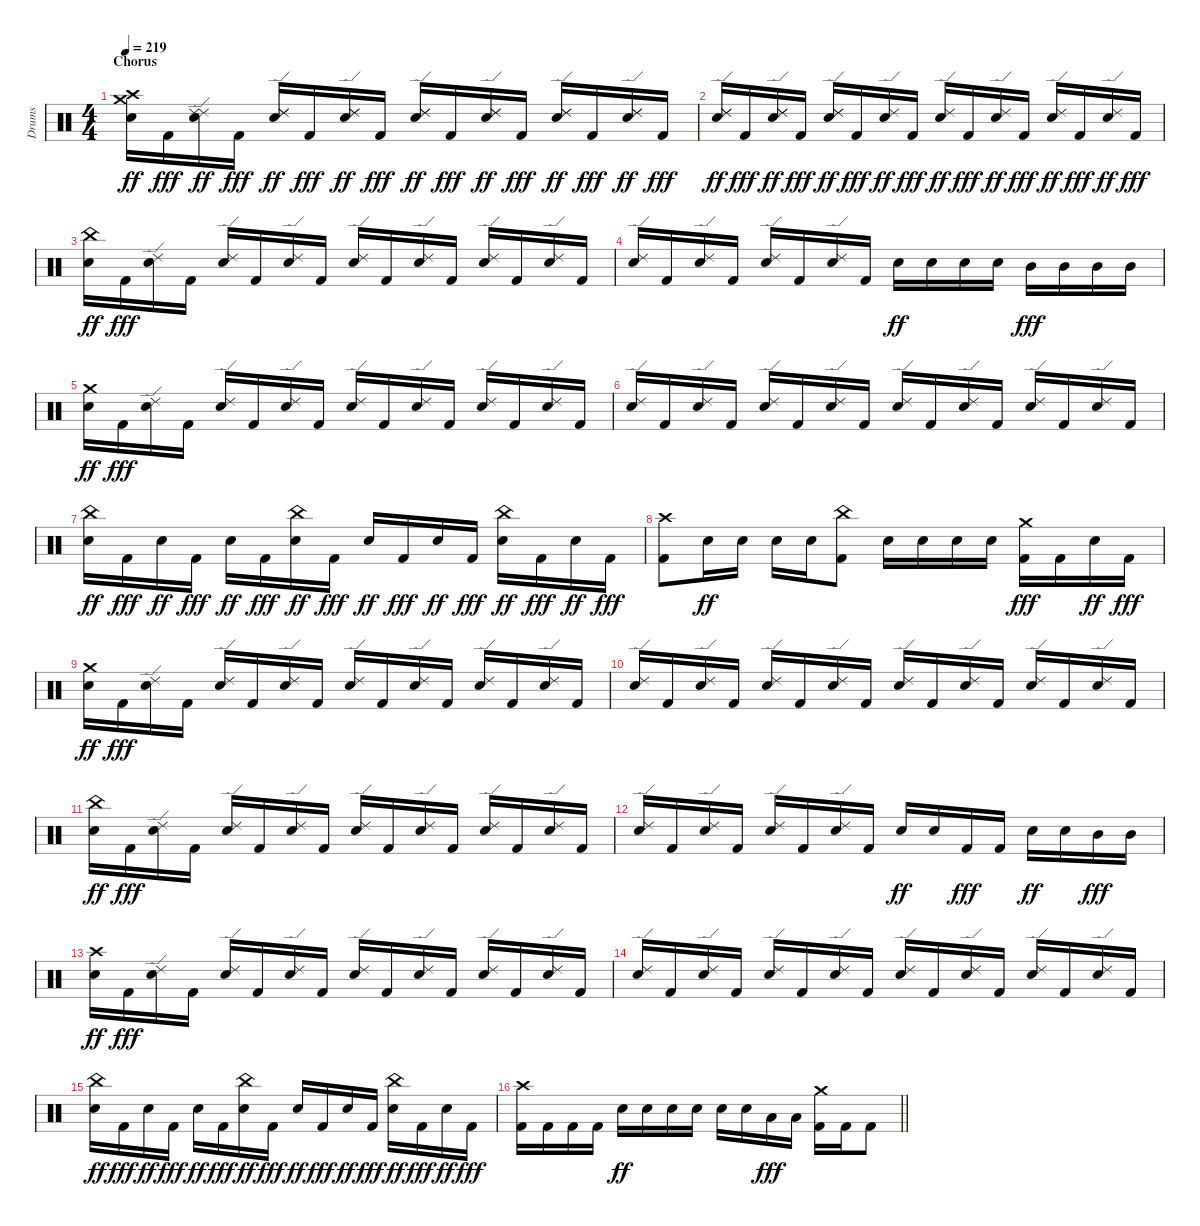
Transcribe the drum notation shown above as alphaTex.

\track ("Drums" "Drums") {instrument percussion}
\staff {score}
\articulation defaults
\ts (4 4)
\section ("" "Chorus")
\tempo 219
\clef neutral
\ks c
("Snare (hit) 2" "Crash medium (hit)" "Crash high (hit)").16{dy ff} "Kick (hit) 2".16{dy fff} ("Snare (hit) 2" "Ride (edge) 2" "Ride (edge) 2").16{dy ff} "Kick (hit) 2".16{dy fff} ("Snare (hit) 2" "Ride (edge) 2" "Ride (edge) 2").16{dy ff} "Kick (hit) 2".16{dy fff} ("Snare (hit) 2" "Ride (edge) 2" "Ride (edge) 2").16{dy ff} "Kick (hit) 2".16{dy fff} ("Snare (hit) 2" "Ride (edge) 2" "Ride (edge) 2").16{dy ff} "Kick (hit) 2".16{dy fff} ("Snare (hit) 2" "Ride (edge) 2" "Ride (edge) 2").16{dy ff} "Kick (hit) 2".16{dy fff} ("Snare (hit) 2" "Ride (edge) 2" "Ride (edge) 2").16{dy ff} "Kick (hit) 2".16{dy fff} ("Snare (hit) 2" "Ride (edge) 2" "Ride (edge) 2").16{dy ff} "Kick (hit) 2".16{dy fff} |
("Snare (hit) 2" "Ride (edge) 2" "Ride (edge) 2").16{dy ff} "Kick (hit) 2".16{dy fff} ("Snare (hit) 2" "Ride (edge) 2" "Ride (edge) 2").16{dy ff} "Kick (hit) 2".16{dy fff} ("Snare (hit) 2" "Ride (edge) 2" "Ride (edge) 2").16{dy ff} "Kick (hit) 2".16{dy fff} ("Snare (hit) 2" "Ride (edge) 2").16{dy ff} "Kick (hit) 2".16{dy fff} ("Snare (hit) 2" "Ride (edge) 2").16{dy ff} "Kick (hit) 2".16{dy fff} ("Snare (hit) 2" "Ride (edge) 2").16{dy ff} "Kick (hit) 2".16{dy fff} ("Snare (hit) 2" "Ride (edge) 2").16{dy ff} "Kick (hit) 2".16{dy fff} ("Snare (hit) 2" "Ride (edge) 2").16{dy ff} "Kick (hit) 2".16{dy fff} |
("Snare (hit) 2" "China (hit)").16{dy ff} "Kick (hit) 2".16{dy fff} ("Snare (hit) 2" "Ride (edge) 2").16 "Kick (hit) 2".16 ("Snare (hit) 2" "Ride (edge) 2").16 "Kick (hit) 2".16 ("Snare (hit) 2" "Ride (edge) 2").16 "Kick (hit) 2".16 ("Snare (hit) 2" "Ride (edge) 2").16 "Kick (hit) 2".16 ("Snare (hit) 2" "Ride (edge) 2").16 "Kick (hit) 2".16 ("Snare (hit) 2" "Ride (edge) 2").16 "Kick (hit) 2".16 ("Snare (hit) 2" "Ride (edge) 2").16 "Kick (hit) 2".16 |
("Snare (hit) 2" "Ride (edge) 2").16 "Kick (hit) 2".16 ("Snare (hit) 2" "Ride (edge) 2").16 "Kick (hit) 2".16 ("Snare (hit) 2" "Ride (edge) 2").16 "Kick (hit) 2".16 ("Snare (hit) 2" "Ride (edge) 2").16 "Kick (hit) 2".16 "Snare (hit) 2".16{dy ff} "Snare (hit) 2".16 "Snare (hit) 2".16 "Snare (hit) 2".16 "Mid Tom (hit)".16{dy fff} "Mid Tom (hit)".16 "Mid Tom (hit)".16 "Mid Tom (hit)".16 |
("Snare (hit) 2" "Crash medium (hit)").16{dy ff} "Kick (hit) 2".16{dy fff} ("Snare (hit) 2" "Ride (edge) 2").16 "Kick (hit) 2".16 ("Snare (hit) 2" "Ride (edge) 2").16 "Kick (hit) 2".16 ("Snare (hit) 2" "Ride (edge) 2").16 "Kick (hit) 2".16 ("Snare (hit) 2" "Ride (edge) 2").16 "Kick (hit) 2".16 ("Snare (hit) 2" "Ride (edge) 2").16 "Kick (hit) 2".16 ("Snare (hit) 2" "Ride (edge) 2").16 "Kick (hit) 2".16 ("Snare (hit) 2" "Ride (edge) 2").16 "Kick (hit) 2".16 |
("Snare (hit) 2" "Ride (edge) 2").16 "Kick (hit) 2".16 ("Snare (hit) 2" "Ride (edge) 2").16 "Kick (hit) 2".16 ("Snare (hit) 2" "Ride (edge) 2").16 "Kick (hit) 2".16 ("Snare (hit) 2" "Ride (edge) 2").16 "Kick (hit) 2".16 ("Snare (hit) 2" "Ride (edge) 2").16 "Kick (hit) 2".16 ("Snare (hit) 2" "Ride (edge) 2").16 "Kick (hit) 2".16 ("Snare (hit) 2" "Ride (edge) 2").16 "Kick (hit) 2".16 ("Snare (hit) 2" "Ride (edge) 2").16 "Kick (hit) 2".16 |
("Snare (hit) 2" "China (hit)").16{dy ff} "Kick (hit) 2".16{dy fff} "Snare (hit) 2".16{dy ff} "Kick (hit) 2".16{dy fff} "Snare (hit) 2".16{dy ff} "Kick (hit) 2".16{dy fff} ("Snare (hit) 2" "China (hit)").16{dy ff} "Kick (hit) 2".16{dy fff} "Snare (hit) 2".16{dy ff} "Kick (hit) 2".16{dy fff} "Snare (hit) 2".16{dy ff} "Kick (hit) 2".16{dy fff} ("Snare (hit) 2" "China (hit)").16{dy ff} "Kick (hit) 2".16{dy fff} "Snare (hit) 2".16{dy ff} "Kick (hit) 2".16{dy fff} |
("Kick (hit) 2" "Crash high (hit)").8 "Snare (hit) 2".16{dy ff} "Snare (hit) 2".16 "Snare (hit) 2".16 "Snare (hit) 2".16 ("Kick (hit) 2" "China (hit)").8 "Snare (hit) 2".16 "Snare (hit) 2".16 "Snare (hit) 2".16 "Snare (hit) 2".16 ("Kick (hit) 2" "Crash medium (hit)").16{dy fff} "Kick (hit) 2".16 "Snare (hit) 2".16{dy ff} "Kick (hit) 2".16{dy fff} |
("Snare (hit) 2" "Crash medium (hit)").16{dy ff} "Kick (hit) 2".16{dy fff} ("Snare (hit) 2" "Ride (edge) 2").16 "Kick (hit) 2".16 ("Snare (hit) 2" "Ride (edge) 2").16 "Kick (hit) 2".16 ("Snare (hit) 2" "Ride (edge) 2").16 "Kick (hit) 2".16 ("Snare (hit) 2" "Ride (edge) 2").16 "Kick (hit) 2".16 ("Snare (hit) 2" "Ride (edge) 2").16 "Kick (hit) 2".16 ("Snare (hit) 2" "Ride (edge) 2").16 "Kick (hit) 2".16 ("Snare (hit) 2" "Ride (edge) 2").16 "Kick (hit) 2".16 |
("Snare (hit) 2" "Ride (edge) 2").16 "Kick (hit) 2".16 ("Snare (hit) 2" "Ride (edge) 2").16 "Kick (hit) 2".16 ("Snare (hit) 2" "Ride (edge) 2").16 "Kick (hit) 2".16 ("Snare (hit) 2" "Ride (edge) 2").16 "Kick (hit) 2".16 ("Snare (hit) 2" "Ride (edge) 2").16 "Kick (hit) 2".16 ("Snare (hit) 2" "Ride (edge) 2").16 "Kick (hit) 2".16 ("Snare (hit) 2" "Ride (edge) 2").16 "Kick (hit) 2".16 ("Snare (hit) 2" "Ride (edge) 2").16 "Kick (hit) 2".16 |
("Snare (hit) 2" "China (hit)").16{dy ff} "Kick (hit) 2".16{dy fff} ("Snare (hit) 2" "Ride (edge) 2").16 "Kick (hit) 2".16 ("Snare (hit) 2" "Ride (edge) 2").16 "Kick (hit) 2".16 ("Snare (hit) 2" "Ride (edge) 2").16 "Kick (hit) 2".16 ("Snare (hit) 2" "Ride (edge) 2").16 "Kick (hit) 2".16 ("Snare (hit) 2" "Ride (edge) 2").16 "Kick (hit) 2".16 ("Snare (hit) 2" "Ride (edge) 2").16 "Kick (hit) 2".16 ("Snare (hit) 2" "Ride (edge) 2").16 "Kick (hit) 2".16 |
("Snare (hit) 2" "Ride (edge) 2").16 "Kick (hit) 2".16 ("Snare (hit) 2" "Ride (edge) 2").16 "Kick (hit) 2".16 ("Snare (hit) 2" "Ride (edge) 2").16 "Kick (hit) 2".16 ("Snare (hit) 2" "Ride (edge) 2").16 "Kick (hit) 2".16 "Snare (hit) 2".16{dy ff} "Snare (hit) 2".16 "Kick (hit) 2".16{dy fff} "Kick (hit) 2".16 "Snare (hit) 2".16{dy ff} "Snare (hit) 2".16 "Mid Tom (hit)".16{dy fff} "Mid Tom (hit)".16 |
("Snare (hit) 2" "Crash high (hit)").16{dy ff} "Kick (hit) 2".16{dy fff} ("Snare (hit) 2" "Ride (edge) 2").16 "Kick (hit) 2".16 ("Snare (hit) 2" "Ride (edge) 2").16 "Kick (hit) 2".16 ("Snare (hit) 2" "Ride (edge) 2").16 "Kick (hit) 2".16 ("Snare (hit) 2" "Ride (edge) 2").16 "Kick (hit) 2".16 ("Snare (hit) 2" "Ride (edge) 2").16 "Kick (hit) 2".16 ("Snare (hit) 2" "Ride (edge) 2").16 "Kick (hit) 2".16 ("Snare (hit) 2" "Ride (edge) 2").16 "Kick (hit) 2".16 |
("Snare (hit) 2" "Ride (edge) 2").16 "Kick (hit) 2".16 ("Snare (hit) 2" "Ride (edge) 2").16 "Kick (hit) 2".16 ("Snare (hit) 2" "Ride (edge) 2").16 "Kick (hit) 2".16 ("Snare (hit) 2" "Ride (edge) 2").16 "Kick (hit) 2".16 ("Snare (hit) 2" "Ride (edge) 2").16 "Kick (hit) 2".16 ("Snare (hit) 2" "Ride (edge) 2").16 "Kick (hit) 2".16 ("Snare (hit) 2" "Ride (edge) 2").16 "Kick (hit) 2".16 ("Snare (hit) 2" "Ride (edge) 2").16 "Kick (hit) 2".16 |
("Snare (hit) 2" "China (hit)").16{dy ff} "Kick (hit) 2".16{dy fff} "Snare (hit) 2".16{dy ff} "Kick (hit) 2".16{dy fff} "Snare (hit) 2".16{dy ff} "Kick (hit) 2".16{dy fff} ("Snare (hit) 2" "China (hit)").16{dy ff} "Kick (hit) 2".16{dy fff} "Snare (hit) 2".16{dy ff} "Kick (hit) 2".16{dy fff} "Snare (hit) 2".16{dy ff} "Kick (hit) 2".16{dy fff} ("Snare (hit) 2" "China (hit)").16{dy ff} "Kick (hit) 2".16{dy fff} "Snare (hit) 2".16{dy ff} "Kick (hit) 2".16{dy fff} |
\barLineRight lightlight
("Kick (hit) 2" "Crash high (hit)").16 "Kick (hit) 2".16 "Kick (hit) 2".16 "Kick (hit) 2".16 "Snare (hit) 2".16{dy ff} "Snare (hit) 2".16 "Snare (hit) 2".16 "Snare (hit) 2".16 "Snare (hit) 2".16 "Snare (hit) 2".16 "Low Tom (hit)".16{dy fff} "Low Tom (hit)".16 ("Kick (hit) 2" "Crash medium (hit)").16 "Kick (hit) 2".16 "Kick (hit) 2".8
